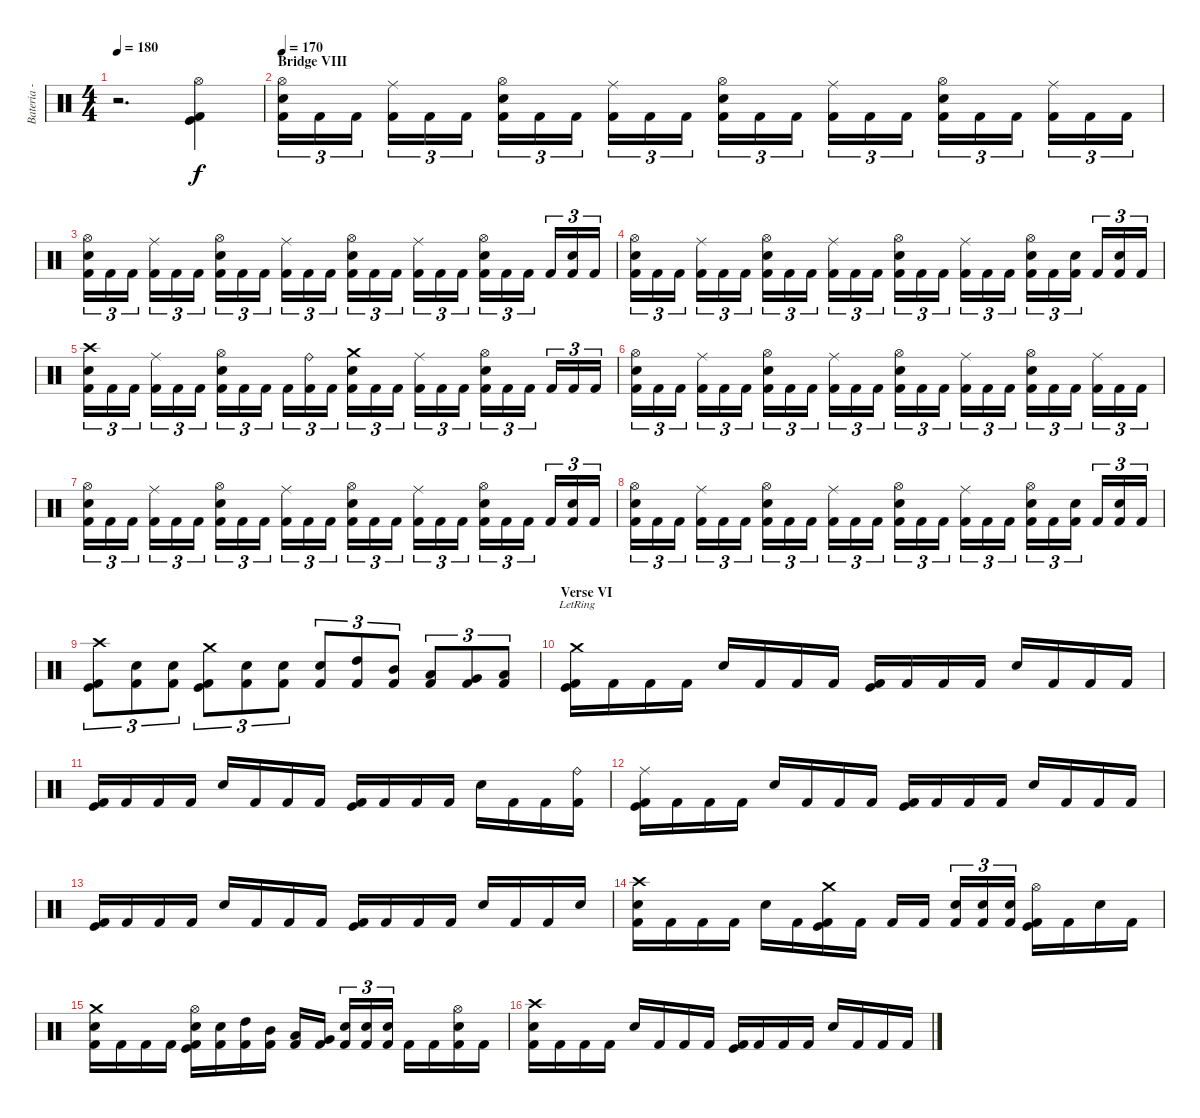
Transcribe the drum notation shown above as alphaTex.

\track ("Bateria - Drums" "Bateria - ") {instrument percussion}
\staff {score}
\articulation defaults
\ts (4 4)
\tempo 180
\clef neutral
\ks c
r.2{d dy f} ("Hi-Hat (open)" "Kick (hit)" "Kick (hit) 2").4 |
\section ("" "Bridge VIII")
\tempo 170
("Hi-Hat (open)" "Snare (hit) 2" "Kick (hit) 2").16{tu (3 2)} "Kick (hit) 2".16{tu (3 2)} "Kick (hit) 2".16{tu (3 2)} ("Ride (middle)" "Kick (hit) 2").16{tu (3 2)} "Kick (hit) 2".16{tu (3 2)} "Kick (hit) 2".16{tu (3 2)} ("Hi-Hat (open)" "Electric Snare (hit)" "Kick (hit) 2").16{tu (3 2)} "Kick (hit) 2".16{tu (3 2)} "Kick (hit) 2".16{tu (3 2)} ("Ride (middle)" "Kick (hit) 2").16{tu (3 2)} "Kick (hit) 2".16{tu (3 2)} "Kick (hit) 2".16{tu (3 2)} ("Hi-Hat (open)" "Snare (hit) 2" "Kick (hit) 2").16{tu (3 2)} "Kick (hit) 2".16{tu (3 2)} "Kick (hit) 2".16{tu (3 2)} ("Ride (middle)" "Kick (hit) 2").16{tu (3 2)} "Kick (hit) 2".16{tu (3 2)} "Kick (hit) 2".16{tu (3 2)} ("Hi-Hat (open)" "Electric Snare (hit)" "Kick (hit) 2").16{tu (3 2)} "Kick (hit) 2".16{tu (3 2)} "Kick (hit) 2".16{tu (3 2)} ("Ride (middle)" "Kick (hit) 2").16{tu (3 2)} "Kick (hit) 2".16{tu (3 2)} "Kick (hit) 2".16{tu (3 2)} |
("Hi-Hat (open)" "Snare (hit) 2" "Kick (hit) 2").16{tu (3 2)} "Kick (hit) 2".16{tu (3 2)} "Kick (hit) 2".16{tu (3 2)} ("Ride (middle)" "Kick (hit) 2").16{tu (3 2)} "Kick (hit) 2".16{tu (3 2)} "Kick (hit) 2".16{tu (3 2)} ("Hi-Hat (open)" "Electric Snare (hit)" "Kick (hit) 2").16{tu (3 2)} "Kick (hit) 2".16{tu (3 2)} "Kick (hit) 2".16{tu (3 2)} ("Ride (middle)" "Kick (hit) 2").16{tu (3 2)} "Kick (hit) 2".16{tu (3 2)} "Kick (hit) 2".16{tu (3 2)} ("Hi-Hat (open)" "Snare (hit) 2" "Kick (hit) 2").16{tu (3 2)} "Kick (hit) 2".16{tu (3 2)} "Kick (hit) 2".16{tu (3 2)} ("Ride (middle)" "Kick (hit) 2").16{tu (3 2)} "Kick (hit) 2".16{tu (3 2)} "Kick (hit) 2".16{tu (3 2)} ("Hi-Hat (open)" "Electric Snare (hit)" "Kick (hit) 2").16{tu (3 2)} "Kick (hit) 2".16{tu (3 2)} "Kick (hit) 2".16{tu (3 2)} "Kick (hit) 2".16{tu (3 2)} ("Electric Snare (hit)" "Kick (hit) 2").16{tu (3 2)} "Kick (hit) 2".16{tu (3 2)} |
("Hi-Hat (open)" "Snare (hit) 2" "Kick (hit) 2").16{tu (3 2)} "Kick (hit) 2".16{tu (3 2)} "Kick (hit) 2".16{tu (3 2)} ("Ride (middle)" "Kick (hit) 2").16{tu (3 2)} "Kick (hit) 2".16{tu (3 2)} "Kick (hit) 2".16{tu (3 2)} ("Hi-Hat (open)" "Electric Snare (hit)" "Kick (hit) 2").16{tu (3 2)} "Kick (hit) 2".16{tu (3 2)} "Kick (hit) 2".16{tu (3 2)} ("Ride (middle)" "Kick (hit) 2").16{tu (3 2)} "Kick (hit) 2".16{tu (3 2)} "Kick (hit) 2".16{tu (3 2)} ("Hi-Hat (open)" "Snare (hit) 2" "Kick (hit) 2").16{tu (3 2)} "Kick (hit) 2".16{tu (3 2)} "Kick (hit) 2".16{tu (3 2)} ("Ride (middle)" "Kick (hit) 2").16{tu (3 2)} "Kick (hit) 2".16{tu (3 2)} "Kick (hit) 2".16{tu (3 2)} ("Hi-Hat (open)" "Electric Snare (hit)" "Kick (hit) 2").16{tu (3 2)} "Kick (hit) 2".16{tu (3 2)} ("Electric Snare (hit)" "Kick (hit) 2").16{tu (3 2)} "Kick (hit) 2".16{tu (3 2)} ("Electric Snare (hit)" "Kick (hit) 2").16{tu (3 2)} "Kick (hit) 2".16{tu (3 2)} |
("Crash high (hit)" "Snare (hit) 2" "Kick (hit) 2").16{tu (3 2)} "Kick (hit) 2".16{tu (3 2)} "Kick (hit) 2".16{tu (3 2)} ("Ride (middle)" "Kick (hit) 2").16{tu (3 2)} "Kick (hit) 2".16{tu (3 2)} "Kick (hit) 2".16{tu (3 2)} ("Hi-Hat (open)" "Electric Snare (hit)" "Kick (hit) 2").16{tu (3 2)} "Kick (hit) 2".16{tu (3 2)} "Kick (hit) 2".16{tu (3 2)} "Kick (hit) 2".16{tu (3 2)} ("Ride (bell)" "Kick (hit) 2").16{tu (3 2)} "Kick (hit) 2".16{tu (3 2)} ("Crash medium (hit)" "Snare (hit) 2" "Kick (hit) 2").16{tu (3 2)} "Kick (hit) 2".16{tu (3 2)} "Kick (hit) 2".16{tu (3 2)} ("Ride (middle)" "Kick (hit) 2").16{tu (3 2)} "Kick (hit) 2".16{tu (3 2)} "Kick (hit) 2".16{tu (3 2)} ("Hi-Hat (open)" "Electric Snare (hit)" "Kick (hit) 2").16{tu (3 2)} "Kick (hit) 2".16{tu (3 2)} "Kick (hit) 2".16{tu (3 2)} "Kick (hit) 2".16{tu (3 2)} "Kick (hit) 2".16{tu (3 2)} "Kick (hit) 2".16{tu (3 2)} |
("Hi-Hat (open)" "Snare (hit) 2" "Kick (hit) 2").16{tu (3 2)} "Kick (hit) 2".16{tu (3 2)} "Kick (hit) 2".16{tu (3 2)} ("Ride (middle)" "Kick (hit) 2").16{tu (3 2)} "Kick (hit) 2".16{tu (3 2)} "Kick (hit) 2".16{tu (3 2)} ("Hi-Hat (open)" "Electric Snare (hit)" "Kick (hit) 2").16{tu (3 2)} "Kick (hit) 2".16{tu (3 2)} "Kick (hit) 2".16{tu (3 2)} ("Ride (middle)" "Kick (hit) 2").16{tu (3 2)} "Kick (hit) 2".16{tu (3 2)} "Kick (hit) 2".16{tu (3 2)} ("Hi-Hat (open)" "Snare (hit) 2" "Kick (hit) 2").16{tu (3 2)} "Kick (hit) 2".16{tu (3 2)} "Kick (hit) 2".16{tu (3 2)} ("Ride (middle)" "Kick (hit) 2").16{tu (3 2)} "Kick (hit) 2".16{tu (3 2)} "Kick (hit) 2".16{tu (3 2)} ("Hi-Hat (open)" "Electric Snare (hit)" "Kick (hit) 2").16{tu (3 2)} "Kick (hit) 2".16{tu (3 2)} "Kick (hit) 2".16{tu (3 2)} ("Ride (middle)" "Kick (hit) 2").16{tu (3 2)} "Kick (hit) 2".16{tu (3 2)} "Kick (hit) 2".16{tu (3 2)} |
("Hi-Hat (open)" "Snare (hit) 2" "Kick (hit) 2").16{tu (3 2)} "Kick (hit) 2".16{tu (3 2)} "Kick (hit) 2".16{tu (3 2)} ("Ride (middle)" "Kick (hit) 2").16{tu (3 2)} "Kick (hit) 2".16{tu (3 2)} "Kick (hit) 2".16{tu (3 2)} ("Hi-Hat (open)" "Electric Snare (hit)" "Kick (hit) 2").16{tu (3 2)} "Kick (hit) 2".16{tu (3 2)} "Kick (hit) 2".16{tu (3 2)} ("Ride (middle)" "Kick (hit) 2").16{tu (3 2)} "Kick (hit) 2".16{tu (3 2)} "Kick (hit) 2".16{tu (3 2)} ("Hi-Hat (open)" "Snare (hit) 2" "Kick (hit) 2").16{tu (3 2)} "Kick (hit) 2".16{tu (3 2)} "Kick (hit) 2".16{tu (3 2)} ("Ride (middle)" "Kick (hit) 2").16{tu (3 2)} "Kick (hit) 2".16{tu (3 2)} "Kick (hit) 2".16{tu (3 2)} ("Hi-Hat (open)" "Electric Snare (hit)" "Kick (hit) 2").16{tu (3 2)} "Kick (hit) 2".16{tu (3 2)} "Kick (hit) 2".16{tu (3 2)} "Kick (hit) 2".16{tu (3 2)} ("Electric Snare (hit)" "Kick (hit) 2").16{tu (3 2)} "Kick (hit) 2".16{tu (3 2)} |
("Hi-Hat (open)" "Snare (hit) 2" "Kick (hit) 2").16{tu (3 2)} "Kick (hit) 2".16{tu (3 2)} "Kick (hit) 2".16{tu (3 2)} ("Ride (middle)" "Kick (hit) 2").16{tu (3 2)} "Kick (hit) 2".16{tu (3 2)} "Kick (hit) 2".16{tu (3 2)} ("Hi-Hat (open)" "Electric Snare (hit)" "Kick (hit) 2").16{tu (3 2)} "Kick (hit) 2".16{tu (3 2)} "Kick (hit) 2".16{tu (3 2)} ("Ride (middle)" "Kick (hit) 2").16{tu (3 2)} "Kick (hit) 2".16{tu (3 2)} "Kick (hit) 2".16{tu (3 2)} ("Hi-Hat (open)" "Snare (hit) 2" "Kick (hit) 2").16{tu (3 2)} "Kick (hit) 2".16{tu (3 2)} "Kick (hit) 2".16{tu (3 2)} ("Ride (middle)" "Kick (hit) 2").16{tu (3 2)} "Kick (hit) 2".16{tu (3 2)} "Kick (hit) 2".16{tu (3 2)} ("Hi-Hat (open)" "Electric Snare (hit)" "Kick (hit) 2").16{tu (3 2)} "Kick (hit) 2".16{tu (3 2)} ("Electric Snare (hit)" "Kick (hit) 2").16{tu (3 2)} "Kick (hit) 2".16{tu (3 2)} ("Electric Snare (hit)" "Kick (hit) 2").16{tu (3 2)} "Kick (hit) 2".16{tu (3 2)} |
("Crash high (hit)" "Kick (hit)" "Kick (hit) 2").8{tu (3 2)} ("Electric Snare (hit)" "Kick (hit) 2").8{tu (3 2)} ("Electric Snare (hit)" "Kick (hit) 2").8{tu (3 2)} ("Crash medium (hit)" "Kick (hit)" "Kick (hit) 2").8{tu (3 2)} ("Snare (hit) 2" "Kick (hit) 2").8{tu (3 2)} ("Snare (hit) 2" "Kick (hit) 2").8{tu (3 2)} ("Snare (hit) 2" "Kick (hit) 2").8{tu (3 2)} ("High Tom (hit)" "Kick (hit) 2").8{tu (3 2)} ("Mid Tom (hit)" "Kick (hit) 2").8{tu (3 2)} ("Low Tom (hit)" "Kick (hit) 2").8{tu (3 2)} ("Very Low Tom (hit)" "Kick (hit) 2").8{tu (3 2)} ("Low Floor Tom (hit)" "Kick (hit) 2").8{tu (3 2)} |
\section ("" "Verse VI")
("Crash medium (hit)"{lr} "Kick (hit)" "Kick (hit) 2").16 "Kick (hit) 2".16 "Kick (hit) 2".16 "Kick (hit) 2".16 "Snare (hit) 2".16 "Kick (hit) 2".16 "Kick (hit) 2".16 "Kick (hit) 2".16 ("Kick (hit)" "Kick (hit) 2").16 "Kick (hit) 2".16 "Kick (hit) 2".16 "Kick (hit) 2".16 "Snare (hit) 2".16 "Kick (hit) 2".16 "Kick (hit) 2".16 "Kick (hit) 2".16 |
("Kick (hit)" "Kick (hit) 2").16 "Kick (hit) 2".16 "Kick (hit) 2".16 "Kick (hit) 2".16 "Snare (hit) 2".16 "Kick (hit) 2".16 "Kick (hit) 2".16 "Kick (hit) 2".16 ("Kick (hit)" "Kick (hit) 2").16 "Kick (hit) 2".16 "Kick (hit) 2".16 "Kick (hit) 2".16 "Snare (hit) 2".16 "Kick (hit) 2".16 "Kick (hit) 2".16 ("Ride (bell)" "Kick (hit) 2").16 |
("Ride (middle)" "Kick (hit)" "Kick (hit) 2").16 "Kick (hit) 2".16 "Kick (hit) 2".16 "Kick (hit) 2".16 "Snare (hit) 2".16 "Kick (hit) 2".16 "Kick (hit) 2".16 "Kick (hit) 2".16 ("Kick (hit)" "Kick (hit) 2").16 "Kick (hit) 2".16 "Kick (hit) 2".16 "Kick (hit) 2".16 "Snare (hit) 2".16 "Kick (hit) 2".16 "Kick (hit) 2".16 "Kick (hit) 2".16 |
("Kick (hit)" "Kick (hit) 2").16 "Kick (hit) 2".16 "Kick (hit) 2".16 "Kick (hit) 2".16 "Snare (hit) 2".16 "Kick (hit) 2".16 "Kick (hit) 2".16 "Kick (hit) 2".16 ("Kick (hit)" "Kick (hit) 2").16 "Kick (hit) 2".16 "Kick (hit) 2".16 "Kick (hit) 2".16 "Snare (hit) 2".16 "Kick (hit) 2".16 "Kick (hit) 2".16 "Snare (hit) 2".16 |
("Crash high (hit)" "Snare (hit) 2" "Kick (hit) 2").16 "Kick (hit) 2".16 "Kick (hit) 2".16 "Kick (hit) 2".16 "Snare (hit) 2".16 "Kick (hit) 2".16 ("Crash medium (hit)" "Kick (hit)" "Kick (hit) 2").16 "Kick (hit) 2".16 "Kick (hit) 2".16 "Kick (hit) 2".16 ("Snare (hit) 2" "Kick (hit) 2").16{tu (3 2)} ("Snare (hit) 2" "Kick (hit) 2").16{tu (3 2)} ("Snare (hit) 2" "Kick (hit) 2").16{tu (3 2)} ("Hi-Hat (open)" "Kick (hit)" "Kick (hit) 2").16 "Kick (hit) 2".16 "Snare (hit) 2".16 "Kick (hit) 2".16 |
("Crash medium (hit)" "Snare (hit) 2" "Kick (hit) 2").16 "Kick (hit) 2".16 "Kick (hit) 2".16 "Kick (hit) 2".16 ("Hi-Hat (open)" "Snare (hit) 2" "Kick (hit)" "Kick (hit) 2").16 ("Snare (hit) 2" "Kick (hit) 2").16 ("High Tom (hit)" "Kick (hit) 2").16 ("Mid Tom (hit)" "Kick (hit) 2").16 ("Low Tom (hit)" "Kick (hit) 2").16 ("Very Low Tom (hit)" "Kick (hit) 2").16 ("Electric Snare (hit)" "Kick (hit) 2").16{tu (3 2)} ("Electric Snare (hit)" "Kick (hit) 2").16{tu (3 2)} ("Electric Snare (hit)" "Kick (hit) 2").16{tu (3 2)} "Kick (hit) 2".16 "Kick (hit) 2".16 ("Hi-Hat (open)" "Snare (hit) 2" "Kick (hit) 2").16 "Kick (hit) 2".16 |
("Crash high (hit)" "Snare (hit) 2" "Kick (hit) 2").16 "Kick (hit) 2".16 "Kick (hit) 2".16 "Kick (hit) 2".16 "Snare (hit) 2".16 "Kick (hit) 2".16 "Kick (hit) 2".16 "Kick (hit) 2".16 ("Kick (hit)" "Kick (hit) 2").16 "Kick (hit) 2".16 "Kick (hit) 2".16 "Kick (hit) 2".16 "Snare (hit) 2".16 "Kick (hit) 2".16 "Kick (hit) 2".16 "Kick (hit) 2".16
